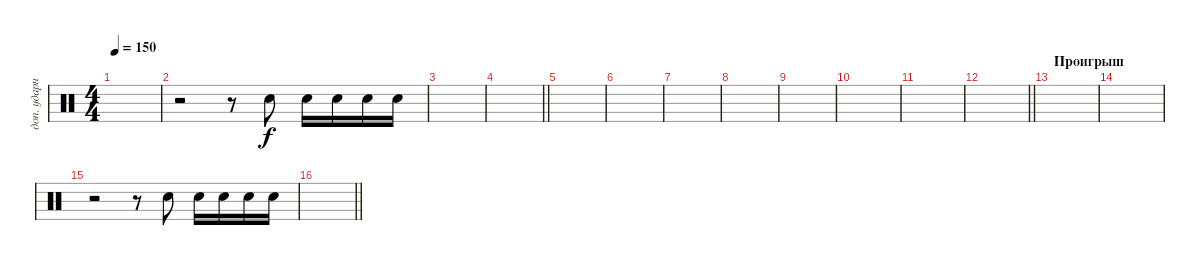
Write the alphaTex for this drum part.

\track ("доп. ударные" "доп. ударн") {instrument percussion}
\staff {score}
\articulation defaults
\ts (4 4)
\tempo 150
\clef neutral
\ks c
|
r.2 r.8 "Snare (hit) 2".8 "Snare (hit) 2".16 "Snare (hit) 2".16 "Snare (hit) 2".16 "Snare (hit) 2".16 |
|
\barLineRight lightlight
|
\section ("" " ")
|
|
|
|
|
|
|
\barLineRight lightlight
|
\section ("" "Проигрыш")
|
|
r.2 r.8 "Snare (hit) 2".8 "Snare (hit) 2".16 "Snare (hit) 2".16 "Snare (hit) 2".16 "Snare (hit) 2".16 |
\barLineRight lightlight
